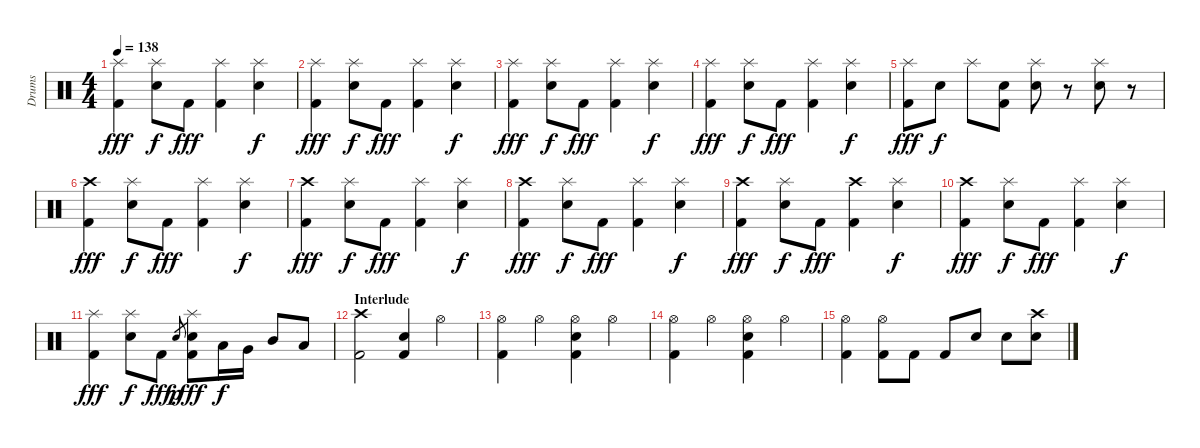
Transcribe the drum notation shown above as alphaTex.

\track ("Drums" "Drums") {instrument percussion}
\staff {score}
\articulation defaults
\ts (4 4)
\tempo 138
\clef neutral
\ks c
("Splash (hit)" "Kick (hit) 2").4{dy fff} ("Splash (hit)" "Snare (hit) 2").8{dy f} "Kick (hit) 2".8{dy fff} ("Splash (hit)" "Kick (hit) 2").4 ("Splash (hit)" "Snare (hit) 2").4{dy f} |
("Splash (hit)" "Kick (hit) 2").4{dy fff} ("Splash (hit)" "Snare (hit) 2").8{dy f} "Kick (hit) 2".8{dy fff} ("Splash (hit)" "Kick (hit) 2").4 ("Splash (hit)" "Snare (hit) 2").4{dy f} |
("Splash (hit)" "Kick (hit) 2").4{dy fff} ("Splash (hit)" "Snare (hit) 2").8{dy f} "Kick (hit) 2".8{dy fff} ("Splash (hit)" "Kick (hit) 2").4 ("Splash (hit)" "Snare (hit) 2").4{dy f} |
("Splash (hit)" "Kick (hit) 2").4{dy fff} ("Splash (hit)" "Snare (hit) 2").8{dy f} "Kick (hit) 2".8{dy fff} ("Splash (hit)" "Kick (hit) 2").4 ("Splash (hit)" "Snare (hit) 2").4{dy f} |
("Splash (hit)" "Kick (hit) 2").8{dy fff} "Snare (hit) 2".8{dy f} "Splash (hit)".8 ("Snare (hit) 2" "Kick (hit) 2").8 ("Splash (hit)" "Snare (hit) 2").8 r.8 ("Splash (hit)" "Snare (hit) 2").8 r.8 |
("Crash high (hit)" "Kick (hit) 2").4{dy fff} ("Splash (hit)" "Snare (hit) 2").8{dy f} "Kick (hit) 2".8{dy fff} ("Splash (hit)" "Kick (hit) 2").4 ("Splash (hit)" "Snare (hit) 2").4{dy f} |
("Crash high (hit)" "Kick (hit) 2").4{dy fff} ("Splash (hit)" "Snare (hit) 2").8{dy f} "Kick (hit) 2".8{dy fff} ("Splash (hit)" "Kick (hit) 2").4 ("Splash (hit)" "Snare (hit) 2").4{dy f} |
("Crash high (hit)" "Kick (hit) 2").4{dy fff} ("Splash (hit)" "Snare (hit) 2").8{dy f} "Kick (hit) 2".8{dy fff} ("Splash (hit)" "Kick (hit) 2").4 ("Splash (hit)" "Snare (hit) 2").4{dy f} |
("Crash high (hit)" "Kick (hit) 2").4{dy fff} ("Splash (hit)" "Snare (hit) 2").8{dy f} "Kick (hit) 2".8{dy fff} ("Crash high (hit)" "Kick (hit) 2").4 ("Splash (hit)" "Snare (hit) 2").4{dy f} |
("Crash high (hit)" "Kick (hit) 2").4{dy fff} ("Splash (hit)" "Snare (hit) 2").8{dy f} "Kick (hit) 2".8{dy fff} ("Splash (hit)" "Kick (hit) 2").4 ("Splash (hit)" "Snare (hit) 2").4{dy f} |
("Splash (hit)" "Kick (hit) 2").4{dy fff} ("Splash (hit)" "Snare (hit) 2").8{dy f} "Kick (hit) 2".8{dy fff} "Snare (hit) 2".8{gr dy p} ("Splash (hit)" "Snare (hit) 2" "Kick (hit) 2").8{dy fff} "Low Floor Tom (hit)".16{dy f} "Very Low Tom (hit)".16 "Mid Tom (hit)".8 "Low Tom (hit)".8 |
\section ("" "Interlude")
("Crash high (hit)" "Kick (hit) 2").2 ("Snare (hit) 2" "Kick (hit) 2").4 "Hi-Hat (open)".4 |
("Hi-Hat (open)" "Kick (hit) 2").4 "Hi-Hat (open)".4 ("Hi-Hat (open)" "Snare (hit) 2" "Kick (hit) 2").4 "Hi-Hat (open)".4 |
("Hi-Hat (open)" "Kick (hit) 2").4 "Hi-Hat (open)".4 ("Hi-Hat (open)" "Snare (hit) 2" "Kick (hit) 2").4 "Hi-Hat (open)".4 |
("Hi-Hat (open)" "Kick (hit) 2").4 ("Hi-Hat (open)" "Kick (hit) 2").8 "Kick (hit) 2".8 "Kick (hit) 2".8 "Snare (hit) 2".8 "Snare (hit) 2".8 ("Crash high (hit)" "Snare (hit) 2").8
